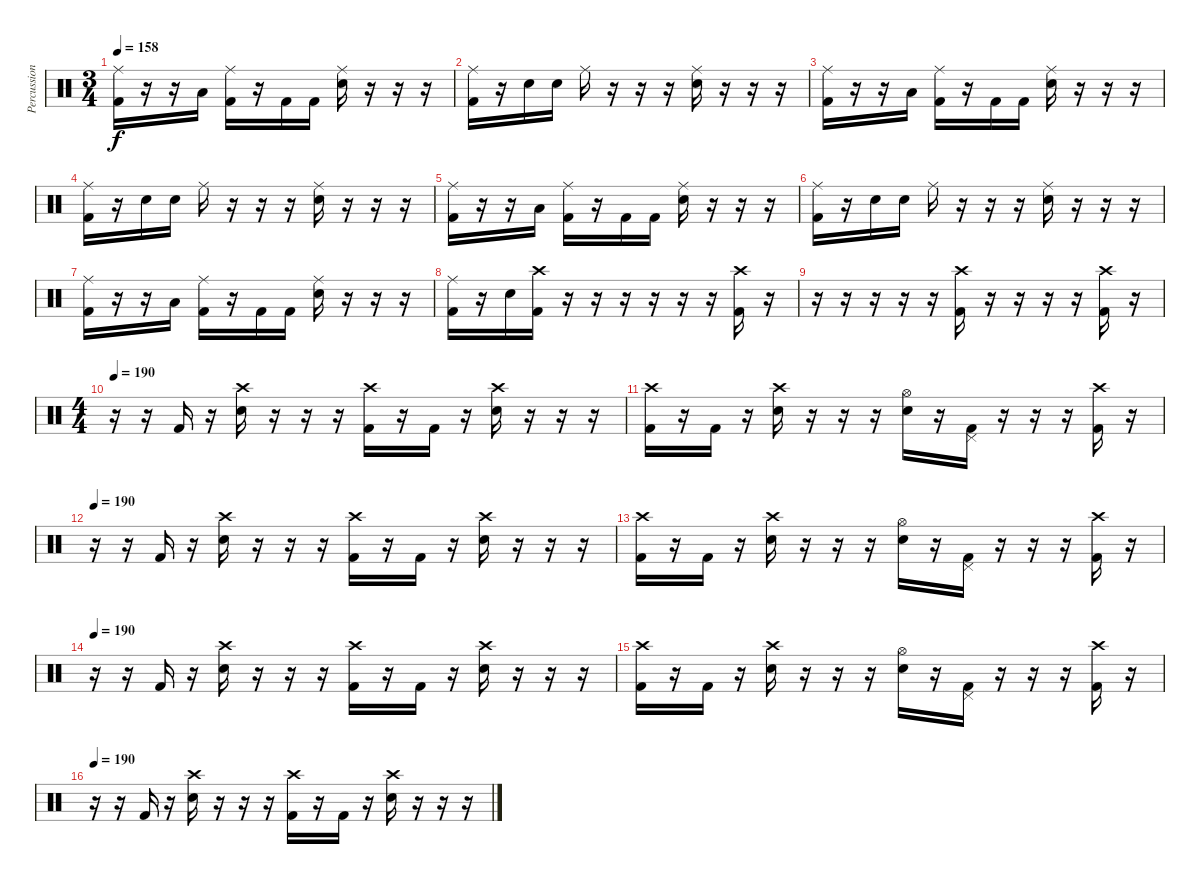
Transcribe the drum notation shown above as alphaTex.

\track ("Percussion" "Percussion") {instrument percussion}
\staff {score}
\articulation defaults
\ts (3 4)
\tempo 158
\clef neutral
\ks c
("Ride (middle)" "Kick (hit) 2").16{dy f} r.16 r.16 "Low Tom (hit)".16 ("Ride (middle)" "Kick (hit) 2").16 r.16 "Kick (hit) 2".16 "Kick (hit) 2".16 ("Ride (middle)" "Electric Snare (hit)").16 r.16 r.16 r.16 |
("Ride (middle)" "Kick (hit) 2").16 r.16 "Electric Snare (hit)".16 "Electric Snare (hit)".16 "Ride (middle)".16 r.16 r.16 r.16 ("Ride (middle)" "Electric Snare (hit)").16 r.16 r.16 r.16 |
("Ride (middle)" "Kick (hit) 2").16 r.16 r.16 "Low Tom (hit)".16 ("Ride (middle)" "Kick (hit) 2").16 r.16 "Kick (hit) 2".16 "Kick (hit) 2".16 ("Ride (middle)" "Electric Snare (hit)").16 r.16 r.16 r.16 |
("Ride (middle)" "Kick (hit) 2").16 r.16 "Electric Snare (hit)".16 "Electric Snare (hit)".16 "Ride (middle)".16 r.16 r.16 r.16 ("Ride (middle)" "Electric Snare (hit)").16 r.16 r.16 r.16 |
("Ride (middle)" "Kick (hit) 2").16 r.16 r.16 "Low Tom (hit)".16 ("Ride (middle)" "Kick (hit) 2").16 r.16 "Kick (hit) 2".16 "Kick (hit) 2".16 ("Ride (middle)" "Electric Snare (hit)").16 r.16 r.16 r.16 |
("Ride (middle)" "Kick (hit) 2").16 r.16 "Electric Snare (hit)".16 "Electric Snare (hit)".16 "Ride (middle)".16 r.16 r.16 r.16 ("Ride (middle)" "Electric Snare (hit)").16 r.16 r.16 r.16 |
("Ride (middle)" "Kick (hit) 2").16 r.16 r.16 "Low Tom (hit)".16 ("Ride (middle)" "Kick (hit) 2").16 r.16 "Kick (hit) 2".16 "Kick (hit) 2".16 ("Ride (middle)" "Electric Snare (hit)").16 r.16 r.16 r.16 |
("Ride (middle)" "Kick (hit) 2").16 r.16 "Electric Snare (hit)".16 ("Crash high (hit)" "Kick (hit) 2").16 r.16 r.16 r.16 r.16 r.16 r.16 ("Crash high (hit)" "Kick (hit) 2").16 r.16 |
r.16 r.16 r.16 r.16 r.16 ("Crash high (hit)" "Kick (hit) 2").16 r.16 r.16 r.16 r.16 ("Crash high (hit)" "Kick (hit) 2").16 r.16 |
\ts (4 4)
\tempo 190
r.16 r.16 "Kick (hit) 2".16 r.16 ("Crash high (hit)" "Electric Snare (hit)").16 r.16 r.16 r.16 ("Crash high (hit)" "Kick (hit) 2").16 r.16 "Kick (hit) 2".16 r.16 ("Crash high (hit)" "Electric Snare (hit)").16 r.16 r.16 r.16 |
("Crash high (hit)" "Kick (hit) 2").16 r.16 "Kick (hit) 2".16 r.16 ("Crash high (hit)" "Electric Snare (hit)").16 r.16 r.16 r.16 ("Hi-Hat (open)" "Electric Snare (hit)").16 r.16 ("Pedal Hi-Hat (hit)" "Kick (hit) 2").16 r.16 r.16 r.16 ("Crash high (hit)" "Kick (hit) 2").16 r.16 |
\tempo 190
r.16 r.16 "Kick (hit) 2".16 r.16 ("Crash high (hit)" "Electric Snare (hit)").16 r.16 r.16 r.16 ("Crash high (hit)" "Kick (hit) 2").16 r.16 "Kick (hit) 2".16 r.16 ("Crash high (hit)" "Electric Snare (hit)").16 r.16 r.16 r.16 |
("Crash high (hit)" "Kick (hit) 2").16 r.16 "Kick (hit) 2".16 r.16 ("Crash high (hit)" "Electric Snare (hit)").16 r.16 r.16 r.16 ("Hi-Hat (open)" "Electric Snare (hit)").16 r.16 ("Pedal Hi-Hat (hit)" "Kick (hit) 2").16 r.16 r.16 r.16 ("Crash high (hit)" "Kick (hit) 2").16 r.16 |
\tempo 190
r.16 r.16 "Kick (hit) 2".16 r.16 ("Crash high (hit)" "Electric Snare (hit)").16 r.16 r.16 r.16 ("Crash high (hit)" "Kick (hit) 2").16 r.16 "Kick (hit) 2".16 r.16 ("Crash high (hit)" "Electric Snare (hit)").16 r.16 r.16 r.16 |
("Crash high (hit)" "Kick (hit) 2").16 r.16 "Kick (hit) 2".16 r.16 ("Crash high (hit)" "Electric Snare (hit)").16 r.16 r.16 r.16 ("Hi-Hat (open)" "Electric Snare (hit)").16 r.16 ("Pedal Hi-Hat (hit)" "Kick (hit) 2").16 r.16 r.16 r.16 ("Crash high (hit)" "Kick (hit) 2").16 r.16 |
\tempo 190
r.16 r.16 "Kick (hit) 2".16 r.16 ("Crash high (hit)" "Electric Snare (hit)").16 r.16 r.16 r.16 ("Crash high (hit)" "Kick (hit) 2").16 r.16 "Kick (hit) 2".16 r.16 ("Crash high (hit)" "Electric Snare (hit)").16 r.16 r.16 r.16
